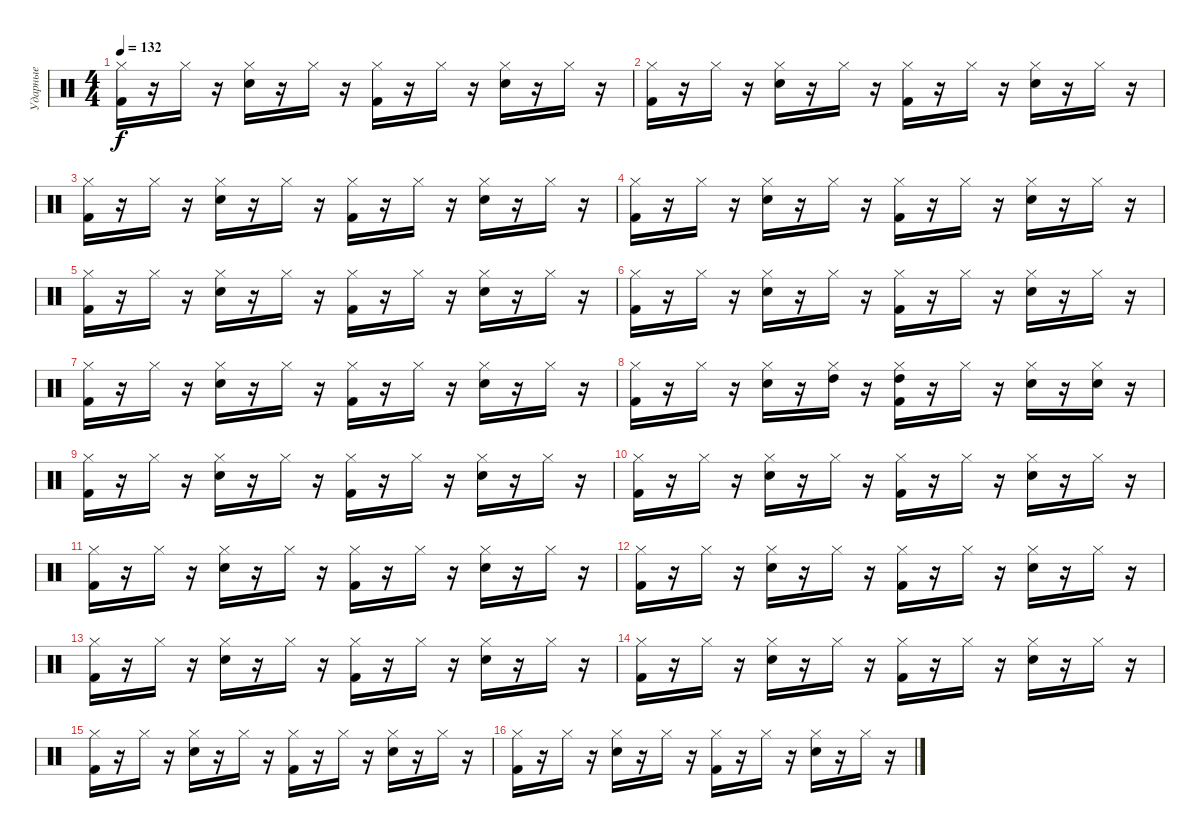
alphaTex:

\track ("Ударные" "Ударные") {instrument percussion}
\staff {score}
\articulation defaults
\ts (4 4)
\tempo 132
\clef neutral
\ks c
("Kick (hit) 2" "Hi-Hat (closed)").16{dy f} r.16 "Hi-Hat (closed)".16 r.16 ("Snare (hit) 2" "Hi-Hat (closed)").16 r.16 "Hi-Hat (closed)".16 r.16 ("Kick (hit) 2" "Hi-Hat (closed)").16 r.16 "Hi-Hat (closed)".16 r.16 ("Snare (hit) 2" "Hi-Hat (closed)").16 r.16 "Hi-Hat (closed)".16 r.16 |
("Kick (hit) 2" "Hi-Hat (closed)").16 r.16 "Hi-Hat (closed)".16 r.16 ("Snare (hit) 2" "Hi-Hat (closed)").16 r.16 "Hi-Hat (closed)".16 r.16 ("Kick (hit) 2" "Hi-Hat (closed)").16 r.16 "Hi-Hat (closed)".16 r.16 ("Snare (hit) 2" "Hi-Hat (closed)").16 r.16 "Hi-Hat (closed)".16 r.16 |
("Kick (hit) 2" "Hi-Hat (closed)").16 r.16 "Hi-Hat (closed)".16 r.16 ("Snare (hit) 2" "Hi-Hat (closed)").16 r.16 "Hi-Hat (closed)".16 r.16 ("Kick (hit) 2" "Hi-Hat (closed)").16 r.16 "Hi-Hat (closed)".16 r.16 ("Snare (hit) 2" "Hi-Hat (closed)").16 r.16 "Hi-Hat (closed)".16 r.16 |
("Kick (hit) 2" "Hi-Hat (closed)").16 r.16 "Hi-Hat (closed)".16 r.16 ("Snare (hit) 2" "Hi-Hat (closed)").16 r.16 "Hi-Hat (closed)".16 r.16 ("Kick (hit) 2" "Hi-Hat (closed)").16 r.16 "Hi-Hat (closed)".16 r.16 ("Snare (hit) 2" "Hi-Hat (closed)").16 r.16 "Hi-Hat (closed)".16 r.16 |
("Kick (hit) 2" "Hi-Hat (closed)").16 r.16 "Hi-Hat (closed)".16 r.16 ("Snare (hit) 2" "Hi-Hat (closed)").16 r.16 "Hi-Hat (closed)".16 r.16 ("Kick (hit) 2" "Hi-Hat (closed)").16 r.16 "Hi-Hat (closed)".16 r.16 ("Snare (hit) 2" "Hi-Hat (closed)").16 r.16 "Hi-Hat (closed)".16 r.16 |
("Kick (hit) 2" "Hi-Hat (closed)").16 r.16 "Hi-Hat (closed)".16 r.16 ("Snare (hit) 2" "Hi-Hat (closed)").16 r.16 "Hi-Hat (closed)".16 r.16 ("Kick (hit) 2" "Hi-Hat (closed)").16 r.16 "Hi-Hat (closed)".16 r.16 ("Snare (hit) 2" "Hi-Hat (closed)").16 r.16 "Hi-Hat (closed)".16 r.16 |
("Kick (hit) 2" "Hi-Hat (closed)").16 r.16 "Hi-Hat (closed)".16 r.16 ("Snare (hit) 2" "Hi-Hat (closed)").16 r.16 "Hi-Hat (closed)".16 r.16 ("Kick (hit) 2" "Hi-Hat (closed)").16 r.16 "Hi-Hat (closed)".16 r.16 ("Snare (hit) 2" "Hi-Hat (closed)").16 r.16 "Hi-Hat (closed)".16 r.16 |
("Kick (hit) 2" "Hi-Hat (closed)").16 r.16 "Hi-Hat (closed)".16 r.16 ("Snare (hit) 2" "Hi-Hat (closed)").16 r.16 ("High Tom (hit)" "Hi-Hat (closed)").16 r.16 ("Kick (hit) 2" "High Tom (hit)" "Hi-Hat (closed)").16 r.16 "Hi-Hat (closed)".16 r.16 ("Snare (hit) 2" "Hi-Hat (closed)").16 r.16 ("Snare (hit) 2" "Hi-Hat (closed)").16 r.16 |
("Kick (hit) 2" "Hi-Hat (closed)").16 r.16 "Hi-Hat (closed)".16 r.16 ("Snare (hit) 2" "Hi-Hat (closed)").16 r.16 "Hi-Hat (closed)".16 r.16 ("Kick (hit) 2" "Hi-Hat (closed)").16 r.16 "Hi-Hat (closed)".16 r.16 ("Snare (hit) 2" "Hi-Hat (closed)").16 r.16 "Hi-Hat (closed)".16 r.16 |
("Kick (hit) 2" "Hi-Hat (closed)").16 r.16 "Hi-Hat (closed)".16 r.16 ("Snare (hit) 2" "Hi-Hat (closed)").16 r.16 "Hi-Hat (closed)".16 r.16 ("Kick (hit) 2" "Hi-Hat (closed)").16 r.16 "Hi-Hat (closed)".16 r.16 ("Snare (hit) 2" "Hi-Hat (closed)").16 r.16 "Hi-Hat (closed)".16 r.16 |
("Kick (hit) 2" "Hi-Hat (closed)").16 r.16 "Hi-Hat (closed)".16 r.16 ("Snare (hit) 2" "Hi-Hat (closed)").16 r.16 "Hi-Hat (closed)".16 r.16 ("Kick (hit) 2" "Hi-Hat (closed)").16 r.16 "Hi-Hat (closed)".16 r.16 ("Snare (hit) 2" "Hi-Hat (closed)").16 r.16 "Hi-Hat (closed)".16 r.16 |
("Kick (hit) 2" "Hi-Hat (closed)").16 r.16 "Hi-Hat (closed)".16 r.16 ("Snare (hit) 2" "Hi-Hat (closed)").16 r.16 "Hi-Hat (closed)".16 r.16 ("Kick (hit) 2" "Hi-Hat (closed)").16 r.16 "Hi-Hat (closed)".16 r.16 ("Snare (hit) 2" "Hi-Hat (closed)").16 r.16 "Hi-Hat (closed)".16 r.16 |
("Kick (hit) 2" "Hi-Hat (closed)").16 r.16 "Hi-Hat (closed)".16 r.16 ("Snare (hit) 2" "Hi-Hat (closed)").16 r.16 "Hi-Hat (closed)".16 r.16 ("Kick (hit) 2" "Hi-Hat (closed)").16 r.16 "Hi-Hat (closed)".16 r.16 ("Snare (hit) 2" "Hi-Hat (closed)").16 r.16 "Hi-Hat (closed)".16 r.16 |
("Kick (hit) 2" "Hi-Hat (closed)").16 r.16 "Hi-Hat (closed)".16 r.16 ("Snare (hit) 2" "Hi-Hat (closed)").16 r.16 "Hi-Hat (closed)".16 r.16 ("Kick (hit) 2" "Hi-Hat (closed)").16 r.16 "Hi-Hat (closed)".16 r.16 ("Snare (hit) 2" "Hi-Hat (closed)").16 r.16 "Hi-Hat (closed)".16 r.16 |
("Kick (hit) 2" "Hi-Hat (closed)").16 r.16 "Hi-Hat (closed)".16 r.16 ("Snare (hit) 2" "Hi-Hat (closed)").16 r.16 "Hi-Hat (closed)".16 r.16 ("Kick (hit) 2" "Hi-Hat (closed)").16 r.16 "Hi-Hat (closed)".16 r.16 ("Snare (hit) 2" "Hi-Hat (closed)").16 r.16 "Hi-Hat (closed)".16 r.16 |
("Kick (hit) 2" "Hi-Hat (closed)").16 r.16 "Hi-Hat (closed)".16 r.16 ("Snare (hit) 2" "Hi-Hat (closed)").16 r.16 "Hi-Hat (closed)".16 r.16 ("Kick (hit) 2" "Hi-Hat (closed)").16 r.16 "Hi-Hat (closed)".16 r.16 ("Snare (hit) 2" "Hi-Hat (closed)").16 r.16 "Hi-Hat (closed)".16 r.16
